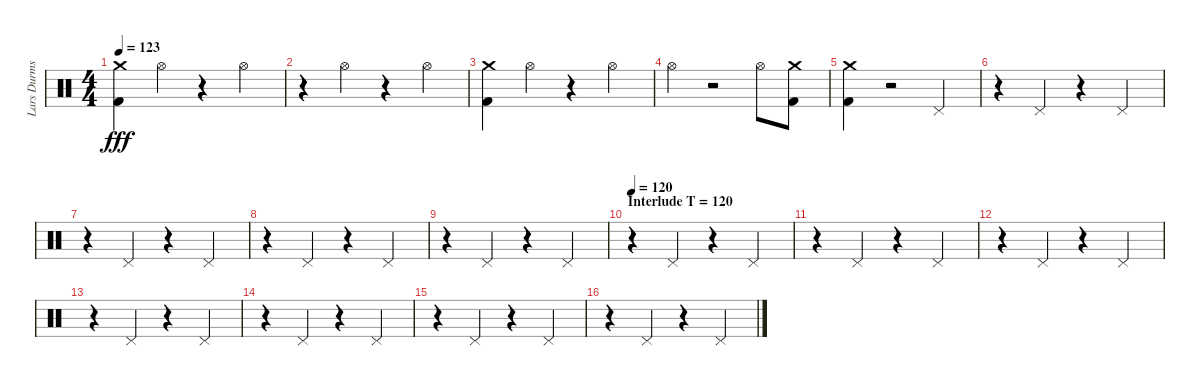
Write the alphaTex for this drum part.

\track ("Lars Durms" "Lars Durms") {instrument percussion}
\staff {score}
\articulation defaults
\ts (4 4)
\tempo 123
\clef neutral
\ks c
("Crash medium (hit)" "Kick (hit) 2").4{dy fff} "Hi-Hat (open)".4 r.4 "Hi-Hat (open)".4 |
r.4 "Hi-Hat (open)".4 r.4 "Hi-Hat (open)".4 |
("Kick (hit) 2" "Crash medium (hit)").4 "Hi-Hat (open)".4 r.4 "Hi-Hat (open)".4 |
"Hi-Hat (open)".4 r.2 "Hi-Hat (open)".8 ("Kick (hit) 2" "Crash medium (hit)").8 |
("Crash medium (hit)" "Kick (hit) 2").4 r.2 "Pedal Hi-Hat (hit)".4 |
r.4 "Pedal Hi-Hat (hit)".4 r.4 "Pedal Hi-Hat (hit)".4 |
r.4 "Pedal Hi-Hat (hit)".4 r.4 "Pedal Hi-Hat (hit)".4 |
r.4 "Pedal Hi-Hat (hit)".4 r.4 "Pedal Hi-Hat (hit)".4 |
r.4 "Pedal Hi-Hat (hit)".4 r.4 "Pedal Hi-Hat (hit)".4 |
\section ("" "Interlude T = 120")
\tempo 120
r.4 "Pedal Hi-Hat (hit)".4 r.4 "Pedal Hi-Hat (hit)".4 |
r.4 "Pedal Hi-Hat (hit)".4 r.4 "Pedal Hi-Hat (hit)".4 |
r.4 "Pedal Hi-Hat (hit)".4 r.4 "Pedal Hi-Hat (hit)".4 |
r.4 "Pedal Hi-Hat (hit)".4 r.4 "Pedal Hi-Hat (hit)".4 |
r.4 "Pedal Hi-Hat (hit)".4 r.4 "Pedal Hi-Hat (hit)".4 |
r.4 "Pedal Hi-Hat (hit)".4 r.4 "Pedal Hi-Hat (hit)".4 |
r.4 "Pedal Hi-Hat (hit)".4 r.4 "Pedal Hi-Hat (hit)".4
